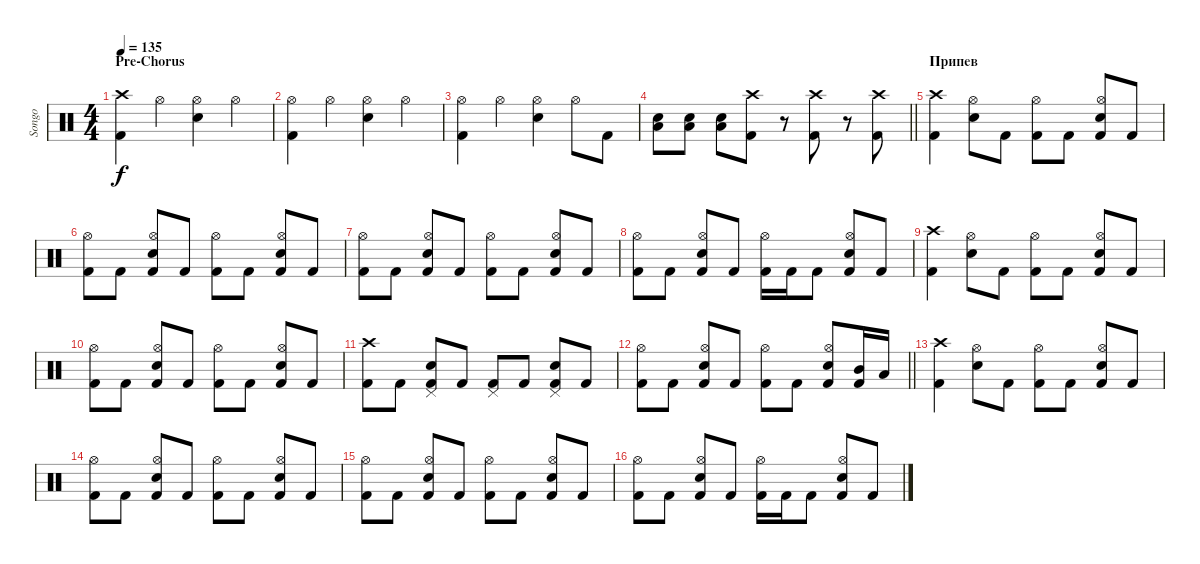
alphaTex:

\track ("Songo" "Songo") {instrument percussion}
\staff {score}
\articulation defaults
\ts (4 4)
\section ("" "Pre-Chorus")
\tempo 135
\clef neutral
\ks c
("Crash high (hit)" "Kick (hit) 2").4{dy f} "Hi-Hat (open)".4 ("Hi-Hat (open)" "Snare (hit) 2").4 "Hi-Hat (open)".4 |
("Hi-Hat (open)" "Kick (hit) 2").4 "Hi-Hat (open)".4 ("Hi-Hat (open)" "Snare (hit) 2").4 "Hi-Hat (open)".4 |
("Hi-Hat (open)" "Kick (hit) 2").4 "Hi-Hat (open)".4 ("Hi-Hat (open)" "Snare (hit) 2").4 "Hi-Hat (open)".8 "Kick (hit) 2".8 |
\barLineRight lightlight
("Low Tom (hit)" "Snare (hit) 2").8 ("Low Tom (hit)" "Snare (hit) 2").8 ("Low Tom (hit)" "Snare (hit) 2").8 ("Crash high (hit)" "Kick (hit) 2").8 r.8 ("Crash high (hit)" "Kick (hit) 2").8 r.8 ("Crash high (hit)" "Kick (hit) 2").8 |
\section ("" "Припев")
("Crash high (hit)" "Kick (hit) 2").4 ("Hi-Hat (open)" "Snare (hit) 2").8 "Kick (hit) 2".8 ("Hi-Hat (open)" "Kick (hit) 2").8 "Kick (hit) 2".8 ("Hi-Hat (open)" "Snare (hit) 2" "Kick (hit) 2").8 "Kick (hit) 2".8 |
("Hi-Hat (open)" "Kick (hit) 2").8 "Kick (hit) 2".8 ("Hi-Hat (open)" "Snare (hit) 2" "Kick (hit) 2").8 "Kick (hit) 2".8 ("Hi-Hat (open)" "Kick (hit) 2").8 "Kick (hit) 2".8 ("Hi-Hat (open)" "Snare (hit) 2" "Kick (hit) 2").8 "Kick (hit) 2".8 |
("Hi-Hat (open)" "Kick (hit) 2").8 "Kick (hit) 2".8 ("Hi-Hat (open)" "Snare (hit) 2" "Kick (hit) 2").8 "Kick (hit) 2".8 ("Hi-Hat (open)" "Kick (hit) 2").8 "Kick (hit) 2".8 ("Hi-Hat (open)" "Snare (hit) 2" "Kick (hit) 2").8 "Kick (hit) 2".8 |
("Hi-Hat (open)" "Kick (hit) 2").8 "Kick (hit) 2".8 ("Hi-Hat (open)" "Snare (hit) 2" "Kick (hit) 2").8 "Kick (hit) 2".8 ("Hi-Hat (open)" "Kick (hit) 2").16 "Kick (hit) 2".16 "Kick (hit) 2".8 ("Hi-Hat (open)" "Snare (hit) 2" "Kick (hit) 2").8 "Kick (hit) 2".8 |
("Crash high (hit)" "Kick (hit) 2").4 ("Hi-Hat (open)" "Snare (hit) 2").8 "Kick (hit) 2".8 ("Hi-Hat (open)" "Kick (hit) 2").8 "Kick (hit) 2".8 ("Hi-Hat (open)" "Snare (hit) 2" "Kick (hit) 2").8 "Kick (hit) 2".8 |
("Hi-Hat (open)" "Kick (hit) 2").8 "Kick (hit) 2".8 ("Hi-Hat (open)" "Snare (hit) 2" "Kick (hit) 2").8 "Kick (hit) 2".8 ("Hi-Hat (open)" "Kick (hit) 2").8 "Kick (hit) 2".8 ("Hi-Hat (open)" "Snare (hit) 2" "Kick (hit) 2").8 "Kick (hit) 2".8 |
("Crash high (hit)" "Kick (hit) 2").8 "Kick (hit) 2".8 ("Pedal Hi-Hat (hit)" "Snare (hit) 2" "Kick (hit) 2").8 "Kick (hit) 2".8 ("Pedal Hi-Hat (hit)" "Kick (hit) 2").8 "Kick (hit) 2".8 ("Pedal Hi-Hat (hit)" "Snare (hit) 2" "Kick (hit) 2").8 "Kick (hit) 2".8 |
\barLineRight lightlight
("Hi-Hat (open)" "Kick (hit) 2").8 "Kick (hit) 2".8 ("Hi-Hat (open)" "Snare (hit) 2" "Kick (hit) 2").8 "Kick (hit) 2".8 ("Hi-Hat (open)" "Kick (hit) 2").8 "Kick (hit) 2".8 ("Hi-Hat (open)" "Snare (hit) 2" "Kick (hit) 2").8 ("Mid Tom (hit)" "Kick (hit) 2").16 "Low Tom (hit)".16 |
("Crash high (hit)" "Kick (hit) 2").4 ("Hi-Hat (open)" "Snare (hit) 2").8 "Kick (hit) 2".8 ("Hi-Hat (open)" "Kick (hit) 2").8 "Kick (hit) 2".8 ("Hi-Hat (open)" "Snare (hit) 2" "Kick (hit) 2").8 "Kick (hit) 2".8 |
("Hi-Hat (open)" "Kick (hit) 2").8 "Kick (hit) 2".8 ("Hi-Hat (open)" "Snare (hit) 2" "Kick (hit) 2").8 "Kick (hit) 2".8 ("Hi-Hat (open)" "Kick (hit) 2").8 "Kick (hit) 2".8 ("Hi-Hat (open)" "Snare (hit) 2" "Kick (hit) 2").8 "Kick (hit) 2".8 |
("Hi-Hat (open)" "Kick (hit) 2").8 "Kick (hit) 2".8 ("Hi-Hat (open)" "Snare (hit) 2" "Kick (hit) 2").8 "Kick (hit) 2".8 ("Hi-Hat (open)" "Kick (hit) 2").8 "Kick (hit) 2".8 ("Hi-Hat (open)" "Snare (hit) 2" "Kick (hit) 2").8 "Kick (hit) 2".8 |
("Hi-Hat (open)" "Kick (hit) 2").8 "Kick (hit) 2".8 ("Hi-Hat (open)" "Snare (hit) 2" "Kick (hit) 2").8 "Kick (hit) 2".8 ("Hi-Hat (open)" "Kick (hit) 2").16 "Kick (hit) 2".16 "Kick (hit) 2".8 ("Hi-Hat (open)" "Snare (hit) 2" "Kick (hit) 2").8 "Kick (hit) 2".8
